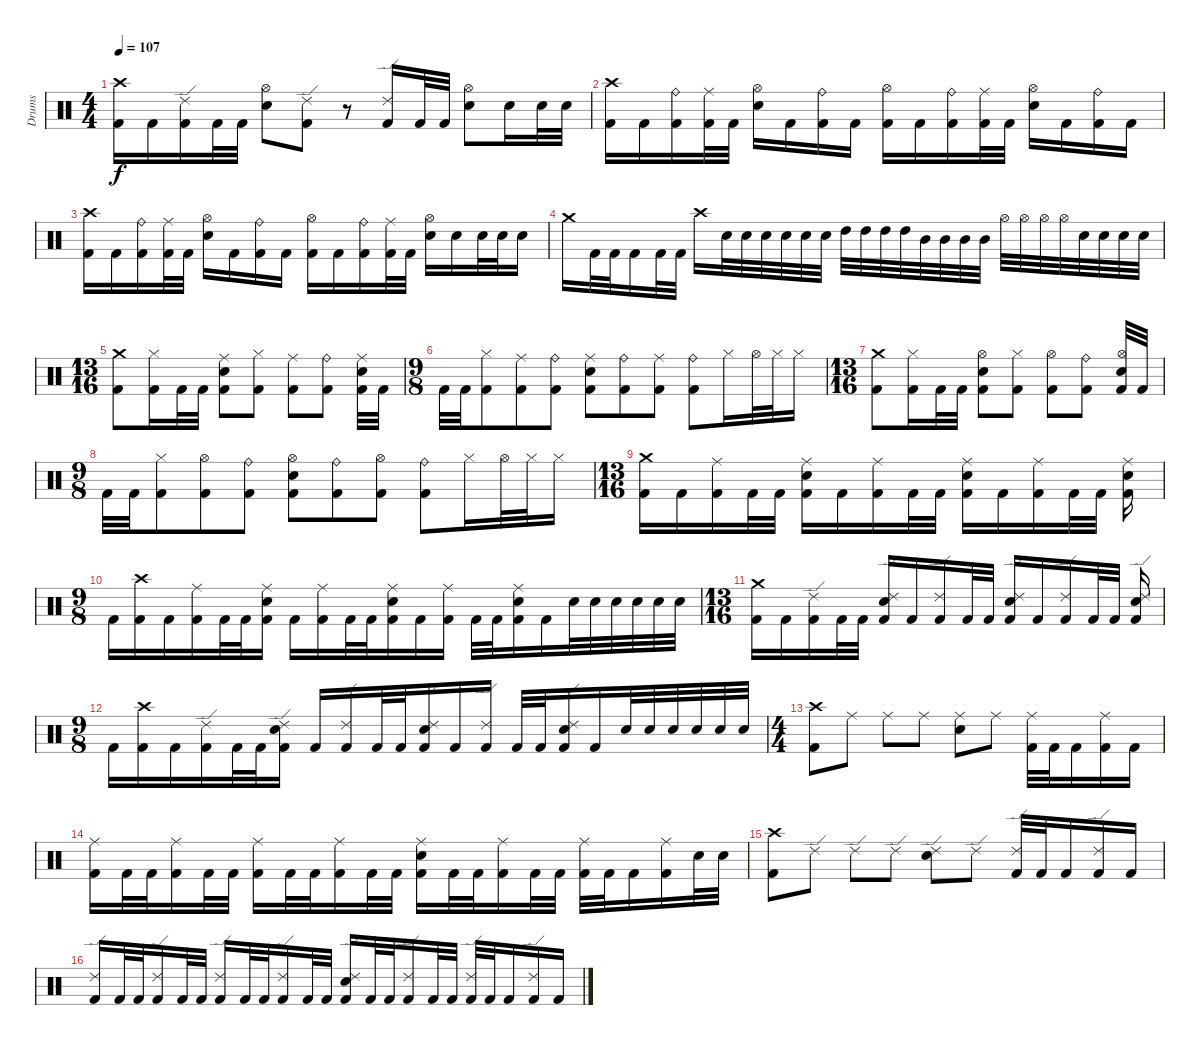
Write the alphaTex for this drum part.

\track ("Drums" "Drums") {instrument percussion}
\staff {score}
\articulation defaults
\ts (4 4)
\tempo 107
\clef neutral
\ks c
("Crash high (hit)" "Kick (hit) 2").16{dy f} "Kick (hit) 2".16 ("Ride (edge) 2" "Kick (hit) 2").16 "Kick (hit) 2".32 "Kick (hit) 2".32 ("Hi-Hat (open)" "Snare (hit) 2").8 ("Ride (edge) 2" "Kick (hit) 2").8 r.8 ("Ride (edge) 2" "Kick (hit) 2").16 "Kick (hit) 2".32 "Kick (hit) 2".32 ("Hi-Hat (open)" "Snare (hit) 2").8 "Electric Snare (hit)".16 "Electric Snare (hit)".32 "Electric Snare (hit)".32 |
("Crash high (hit)" "Kick (hit) 2").16 "Kick (hit) 2".16 ("Ride (bell)" "Kick (hit) 2").16 ("Ride (middle)" "Kick (hit) 2").32 "Kick (hit) 2".32 ("Hi-Hat (open)" "Snare (hit) 2").16 "Kick (hit) 2".16 ("Ride (bell)" "Kick (hit) 2").16 "Kick (hit) 2".16 ("Hi-Hat (open)" "Kick (hit) 2").16 "Kick (hit) 2".16 ("Ride (bell)" "Kick (hit) 2").16 ("Ride (middle)" "Kick (hit) 2").32 "Kick (hit) 2".32 ("Hi-Hat (open)" "Snare (hit) 2").16 "Kick (hit) 2".16 ("Ride (bell)" "Kick (hit) 2").16 "Kick (hit) 2".16 |
("Crash high (hit)" "Kick (hit) 2").16 "Kick (hit) 2".16 ("Ride (bell)" "Kick (hit) 2").16 ("Ride (middle)" "Kick (hit) 2").32 "Kick (hit) 2".32 ("Hi-Hat (open)" "Snare (hit) 2").16 "Kick (hit) 2".16 ("Ride (bell)" "Kick (hit) 2").16 "Kick (hit) 2".16 ("Hi-Hat (open)" "Kick (hit) 2").16 "Kick (hit) 2".16 ("Ride (bell)" "Kick (hit) 2").16 ("Ride (middle)" "Kick (hit) 2").32 "Kick (hit) 2".32 ("Hi-Hat (open)" "Snare (hit) 2").16 "Electric Snare (hit)".16 "Electric Snare (hit)".32 "Electric Snare (hit)".32 "Electric Snare (hit)".16 |
"Crash medium (hit)".16 "Kick (hit) 2".32 "Kick (hit) 2".32 "Kick (hit) 2".16 "Kick (hit) 2".32 "Kick (hit) 2".32 "Crash high (hit)".16 "Electric Snare (hit)".32 "Electric Snare (hit)".32 "Electric Snare (hit)".32 "Electric Snare (hit)".32 "Electric Snare (hit)".32 "Electric Snare (hit)".32 "High Tom (hit)".32 "High Tom (hit)".32 "High Tom (hit)".32 "High Tom (hit)".32 "Mid Tom (hit)".32 "Mid Tom (hit)".32 "Mid Tom (hit)".32 "Mid Tom (hit)".32 "Hi-Hat (open)".32 "Hi-Hat (open)".32 "Hi-Hat (open)".32 "Hi-Hat (open)".32 "Snare (hit) 2".32 "Snare (hit) 2".32 "Snare (hit) 2".32 "Snare (hit) 2".32 |
\ts (13 16)
("Crash medium (hit)" "Kick (hit) 2").8 ("Hi-Hat (closed)" "Kick (hit) 2").16 "Kick (hit) 2".32 "Kick (hit) 2".32 ("Ride (middle)" "Snare (hit) 2" "Kick (hit) 2").8 ("Hi-Hat (closed)" "Kick (hit) 2").8 ("Ride (middle)" "Kick (hit) 2").8 ("Ride (bell)" "Kick (hit) 2").8 ("Ride (middle)" "Snare (hit) 2" "Kick (hit) 2").32 "Kick (hit) 2".32 |
\ts (9 8)
"Kick (hit) 2".32 "Kick (hit) 2".32 ("Hi-Hat (closed)" "Kick (hit) 2").8 ("Ride (middle)" "Kick (hit) 2").8 ("Ride (bell)" "Kick (hit) 2").8 ("Ride (middle)" "Snare (hit) 2" "Kick (hit) 2").8 ("Ride (bell)" "Kick (hit) 2").8 ("Ride (middle)" "Kick (hit) 2").8 ("Ride (bell)" "Kick (hit) 2").8 "Hi-Hat (closed)".16 "Hi-Hat (open)".32 "Hi-Hat (closed)".32 "Hi-Hat (closed)".16 |
\ts (13 16)
("Crash medium (hit)" "Kick (hit) 2").8 ("Hi-Hat (closed)" "Kick (hit) 2").16 "Kick (hit) 2".32 "Kick (hit) 2".32 ("Hi-Hat (open)" "Snare (hit) 2" "Kick (hit) 2").8 ("Hi-Hat (closed)" "Kick (hit) 2").8 ("Hi-Hat (open)" "Kick (hit) 2").8 ("Ride (bell)" "Kick (hit) 2").8 ("Hi-Hat (open)" "Snare (hit) 2" "Kick (hit) 2").32 "Kick (hit) 2".32 |
\ts (9 8)
"Kick (hit) 2".32 "Kick (hit) 2".32 ("Hi-Hat (closed)" "Kick (hit) 2").8 ("Hi-Hat (open)" "Kick (hit) 2").8 ("Ride (bell)" "Kick (hit) 2").8 ("Hi-Hat (open)" "Snare (hit) 2" "Kick (hit) 2").8 ("Ride (bell)" "Kick (hit) 2").8 ("Hi-Hat (open)" "Kick (hit) 2").8 ("Ride (bell)" "Kick (hit) 2").8 "Hi-Hat (closed)".16 "Hi-Hat (open)".32 "Hi-Hat (closed)".32 "Hi-Hat (closed)".16 |
\ts (13 16)
("Crash medium (hit)" "Kick (hit) 2").16 "Kick (hit) 2".16 ("Ride (middle)" "Kick (hit) 2").16 "Kick (hit) 2".32 "Kick (hit) 2".32 ("Ride (middle)" "Snare (hit) 2" "Kick (hit) 2").16 "Kick (hit) 2".16 ("Ride (middle)" "Kick (hit) 2").16 "Kick (hit) 2".32 "Kick (hit) 2".32 ("Ride (middle)" "Snare (hit) 2" "Kick (hit) 2").16 "Kick (hit) 2".16 ("Ride (middle)" "Kick (hit) 2").16 "Kick (hit) 2".32 "Kick (hit) 2".32 ("Ride (middle)" "Snare (hit) 2" "Kick (hit) 2").16 |
\ts (9 8)
"Kick (hit) 2".16 ("Crash high (hit)" "Kick (hit) 2").16 "Kick (hit) 2".16 ("Ride (middle)" "Kick (hit) 2").16 "Kick (hit) 2".32 "Kick (hit) 2".32 ("Ride (middle)" "Snare (hit) 2" "Kick (hit) 2").16 "Kick (hit) 2".16 ("Ride (middle)" "Kick (hit) 2").16 "Kick (hit) 2".32 "Kick (hit) 2".32 ("Ride (middle)" "Snare (hit) 2" "Kick (hit) 2").16 "Kick (hit) 2".16 ("Ride (middle)" "Kick (hit) 2").16 "Kick (hit) 2".32 "Kick (hit) 2".32 ("Ride (middle)" "Snare (hit) 2" "Kick (hit) 2").16 "Kick (hit) 2".16 "Electric Snare (hit)".32 "Snare (hit) 2".32 "Electric Snare (hit)".32 "Electric Snare (hit)".32 "Snare (hit) 2".32 "Snare (hit) 2".32 |
\ts (13 16)
("Crash medium (hit)" "Kick (hit) 2").16 "Kick (hit) 2".16 ("Ride (edge) 2" "Kick (hit) 2").16 "Kick (hit) 2".32 "Kick (hit) 2".32 ("Ride (edge) 2" "Snare (hit) 2" "Kick (hit) 2").16 "Kick (hit) 2".16 ("Ride (edge) 2" "Kick (hit) 2").16 "Kick (hit) 2".32 "Kick (hit) 2".32 ("Ride (edge) 2" "Snare (hit) 2" "Kick (hit) 2").16 "Kick (hit) 2".16 ("Ride (edge) 2" "Kick (hit) 2").16 "Kick (hit) 2".32 "Kick (hit) 2".32 ("Ride (edge) 2" "Snare (hit) 2" "Kick (hit) 2").16 |
\ts (9 8)
"Kick (hit) 2".16 ("Crash high (hit)" "Kick (hit) 2").16 "Kick (hit) 2".16 ("Ride (edge) 2" "Kick (hit) 2").16 "Kick (hit) 2".32 "Kick (hit) 2".32 ("Ride (edge) 2" "Snare (hit) 2" "Kick (hit) 2").16 "Kick (hit) 2".16 ("Ride (edge) 2" "Kick (hit) 2").16 "Kick (hit) 2".32 "Kick (hit) 2".32 ("Ride (edge) 2" "Snare (hit) 2" "Kick (hit) 2").16 "Kick (hit) 2".16 ("Ride (edge) 2" "Kick (hit) 2").16 "Kick (hit) 2".32 "Kick (hit) 2".32 ("Ride (edge) 2" "Snare (hit) 2" "Kick (hit) 2").16 "Kick (hit) 2".16 "Electric Snare (hit)".32 "Snare (hit) 2".32 "Electric Snare (hit)".32 "Electric Snare (hit)".32 "Snare (hit) 2".32 "Snare (hit) 2".32 |
\ts (4 4)
("Crash high (hit)" "Kick (hit) 2").8 "Ride (middle)".8 "Ride (middle)".8 "Ride (middle)".8 ("Ride (middle)" "Snare (hit) 2").8 "Ride (middle)".8 ("Ride (middle)" "Kick (hit) 2").32 "Kick (hit) 2".32 "Kick (hit) 2".16 ("Ride (middle)" "Kick (hit) 2").16 "Kick (hit) 2".16 |
("Ride (middle)" "Kick (hit) 2").16 "Kick (hit) 2".32 "Kick (hit) 2".32 ("Ride (middle)" "Kick (hit) 2").16 "Kick (hit) 2".32 "Kick (hit) 2".32 ("Ride (middle)" "Kick (hit) 2").16 "Kick (hit) 2".32 "Kick (hit) 2".32 ("Ride (middle)" "Kick (hit) 2").16 "Kick (hit) 2".32 "Kick (hit) 2".32 ("Ride (middle)" "Snare (hit) 2" "Kick (hit) 2").16 "Kick (hit) 2".32 "Kick (hit) 2".32 ("Ride (middle)" "Kick (hit) 2").16 "Kick (hit) 2".32 "Kick (hit) 2".32 ("Ride (middle)" "Kick (hit) 2").32 "Kick (hit) 2".32 "Kick (hit) 2".16 ("Ride (middle)" "Kick (hit) 2").16 "Electric Snare (hit)".32 "Electric Snare (hit)".32 |
("Crash high (hit)" "Kick (hit) 2").8 "Ride (edge) 2".8 "Ride (edge) 2".8 "Ride (edge) 2".8 ("Ride (edge) 2" "Snare (hit) 2").8 "Ride (edge) 2".8 ("Ride (edge) 2" "Kick (hit) 2").32 "Kick (hit) 2".32 "Kick (hit) 2".16 ("Ride (edge) 2" "Kick (hit) 2").16 "Kick (hit) 2".16 |
("Ride (edge) 2" "Kick (hit) 2").16 "Kick (hit) 2".32 "Kick (hit) 2".32 ("Ride (edge) 2" "Kick (hit) 2").16 "Kick (hit) 2".32 "Kick (hit) 2".32 ("Ride (edge) 2" "Kick (hit) 2").16 "Kick (hit) 2".32 "Kick (hit) 2".32 ("Ride (edge) 2" "Kick (hit) 2").16 "Kick (hit) 2".32 "Kick (hit) 2".32 ("Ride (edge) 2" "Snare (hit) 2" "Kick (hit) 2").16 "Kick (hit) 2".32 "Kick (hit) 2".32 ("Ride (edge) 2" "Kick (hit) 2").16 "Kick (hit) 2".32 "Kick (hit) 2".32 ("Ride (edge) 2" "Kick (hit) 2").32 "Kick (hit) 2".32 "Kick (hit) 2".16 ("Ride (edge) 2" "Kick (hit) 2").16 "Kick (hit) 2".16
